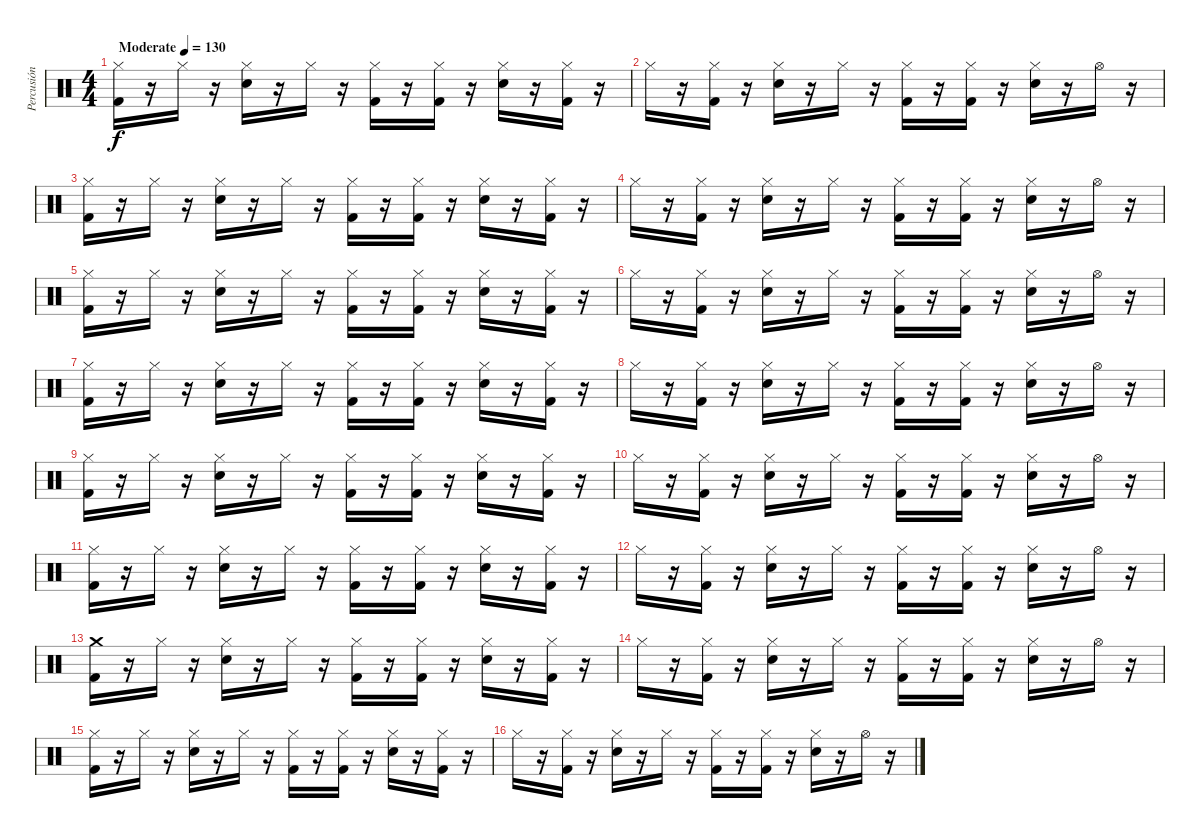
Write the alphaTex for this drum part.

\track ("Percusión" "Percusión") {instrument percussion}
\staff {score}
\articulation defaults
\ts (4 4)
\tempo (130 "Moderate")
\clef neutral
\ks c
("Hi-Hat (closed)" "Kick (hit) 2").16{dy f} r.16 "Hi-Hat (closed)".16 r.16 ("Hi-Hat (closed)" "Electric Snare (hit)").16 r.16 "Hi-Hat (closed)".16 r.16 ("Hi-Hat (closed)" "Kick (hit) 2").16 r.16 ("Hi-Hat (closed)" "Kick (hit) 2").16 r.16 ("Hi-Hat (closed)" "Electric Snare (hit)").16 r.16 ("Hi-Hat (closed)" "Kick (hit) 2").16 r.16 |
"Hi-Hat (closed)".16 r.16 ("Hi-Hat (closed)" "Kick (hit) 2").16 r.16 ("Hi-Hat (closed)" "Electric Snare (hit)").16 r.16 "Hi-Hat (closed)".16 r.16 ("Hi-Hat (closed)" "Kick (hit) 2").16 r.16 ("Hi-Hat (closed)" "Kick (hit) 2").16 r.16 ("Hi-Hat (closed)" "Electric Snare (hit)").16 r.16 "Hi-Hat (open)".16 r.16 |
("Hi-Hat (closed)" "Kick (hit) 2").16 r.16 "Hi-Hat (closed)".16 r.16 ("Hi-Hat (closed)" "Electric Snare (hit)").16 r.16 "Hi-Hat (closed)".16 r.16 ("Hi-Hat (closed)" "Kick (hit) 2").16 r.16 ("Hi-Hat (closed)" "Kick (hit) 2").16 r.16 ("Hi-Hat (closed)" "Electric Snare (hit)").16 r.16 ("Hi-Hat (closed)" "Kick (hit) 2").16 r.16 |
"Hi-Hat (closed)".16 r.16 ("Hi-Hat (closed)" "Kick (hit) 2").16 r.16 ("Hi-Hat (closed)" "Electric Snare (hit)").16 r.16 "Hi-Hat (closed)".16 r.16 ("Hi-Hat (closed)" "Kick (hit) 2").16 r.16 ("Hi-Hat (closed)" "Kick (hit) 2").16 r.16 ("Hi-Hat (closed)" "Electric Snare (hit)").16 r.16 "Hi-Hat (open)".16 r.16 |
("Hi-Hat (closed)" "Kick (hit) 2").16 r.16 "Hi-Hat (closed)".16 r.16 ("Hi-Hat (closed)" "Electric Snare (hit)").16 r.16 "Hi-Hat (closed)".16 r.16 ("Hi-Hat (closed)" "Kick (hit) 2").16 r.16 ("Hi-Hat (closed)" "Kick (hit) 2").16 r.16 ("Hi-Hat (closed)" "Electric Snare (hit)").16 r.16 ("Hi-Hat (closed)" "Kick (hit) 2").16 r.16 |
"Hi-Hat (closed)".16 r.16 ("Hi-Hat (closed)" "Kick (hit) 2").16 r.16 ("Hi-Hat (closed)" "Electric Snare (hit)").16 r.16 "Hi-Hat (closed)".16 r.16 ("Hi-Hat (closed)" "Kick (hit) 2").16 r.16 ("Hi-Hat (closed)" "Kick (hit) 2").16 r.16 ("Hi-Hat (closed)" "Electric Snare (hit)").16 r.16 "Hi-Hat (open)".16 r.16 |
("Hi-Hat (closed)" "Kick (hit) 2").16 r.16 "Hi-Hat (closed)".16 r.16 ("Hi-Hat (closed)" "Electric Snare (hit)").16 r.16 "Hi-Hat (closed)".16 r.16 ("Hi-Hat (closed)" "Kick (hit) 2").16 r.16 ("Hi-Hat (closed)" "Kick (hit) 2").16 r.16 ("Hi-Hat (closed)" "Electric Snare (hit)").16 r.16 ("Hi-Hat (closed)" "Kick (hit) 2").16 r.16 |
"Hi-Hat (closed)".16 r.16 ("Hi-Hat (closed)" "Kick (hit) 2").16 r.16 ("Hi-Hat (closed)" "Electric Snare (hit)").16 r.16 "Hi-Hat (closed)".16 r.16 ("Hi-Hat (closed)" "Kick (hit) 2").16 r.16 ("Hi-Hat (closed)" "Kick (hit) 2").16 r.16 ("Hi-Hat (closed)" "Electric Snare (hit)").16 r.16 "Hi-Hat (open)".16 r.16 |
("Hi-Hat (closed)" "Kick (hit) 2").16 r.16 "Hi-Hat (closed)".16 r.16 ("Hi-Hat (closed)" "Electric Snare (hit)").16 r.16 "Hi-Hat (closed)".16 r.16 ("Hi-Hat (closed)" "Kick (hit) 2").16 r.16 ("Hi-Hat (closed)" "Kick (hit) 2").16 r.16 ("Hi-Hat (closed)" "Electric Snare (hit)").16 r.16 ("Hi-Hat (closed)" "Kick (hit) 2").16 r.16 |
"Hi-Hat (closed)".16 r.16 ("Hi-Hat (closed)" "Kick (hit) 2").16 r.16 ("Hi-Hat (closed)" "Electric Snare (hit)").16 r.16 "Hi-Hat (closed)".16 r.16 ("Hi-Hat (closed)" "Kick (hit) 2").16 r.16 ("Hi-Hat (closed)" "Kick (hit) 2").16 r.16 ("Hi-Hat (closed)" "Electric Snare (hit)").16 r.16 "Hi-Hat (open)".16 r.16 |
("Hi-Hat (closed)" "Kick (hit) 2").16 r.16 "Hi-Hat (closed)".16 r.16 ("Hi-Hat (closed)" "Electric Snare (hit)").16 r.16 "Hi-Hat (closed)".16 r.16 ("Hi-Hat (closed)" "Kick (hit) 2").16 r.16 ("Hi-Hat (closed)" "Kick (hit) 2").16 r.16 ("Hi-Hat (closed)" "Electric Snare (hit)").16 r.16 ("Hi-Hat (closed)" "Kick (hit) 2").16 r.16 |
"Hi-Hat (closed)".16 r.16 ("Hi-Hat (closed)" "Kick (hit) 2").16 r.16 ("Hi-Hat (closed)" "Electric Snare (hit)").16 r.16 "Hi-Hat (closed)".16 r.16 ("Hi-Hat (closed)" "Kick (hit) 2").16 r.16 ("Hi-Hat (closed)" "Kick (hit) 2").16 r.16 ("Hi-Hat (closed)" "Electric Snare (hit)").16 r.16 "Hi-Hat (open)".16 r.16 |
("Crash medium (hit)" "Kick (hit) 2").16 r.16 "Hi-Hat (closed)".16 r.16 ("Hi-Hat (closed)" "Electric Snare (hit)").16 r.16 "Hi-Hat (closed)".16 r.16 ("Hi-Hat (closed)" "Kick (hit) 2").16 r.16 ("Hi-Hat (closed)" "Kick (hit) 2").16 r.16 ("Hi-Hat (closed)" "Electric Snare (hit)").16 r.16 ("Hi-Hat (closed)" "Kick (hit) 2").16 r.16 |
"Hi-Hat (closed)".16 r.16 ("Hi-Hat (closed)" "Kick (hit) 2").16 r.16 ("Hi-Hat (closed)" "Electric Snare (hit)").16 r.16 "Hi-Hat (closed)".16 r.16 ("Hi-Hat (closed)" "Kick (hit) 2").16 r.16 ("Hi-Hat (closed)" "Kick (hit) 2").16 r.16 ("Hi-Hat (closed)" "Electric Snare (hit)").16 r.16 "Hi-Hat (open)".16 r.16 |
("Hi-Hat (closed)" "Kick (hit) 2").16 r.16 "Hi-Hat (closed)".16 r.16 ("Hi-Hat (closed)" "Electric Snare (hit)").16 r.16 "Hi-Hat (closed)".16 r.16 ("Hi-Hat (closed)" "Kick (hit) 2").16 r.16 ("Hi-Hat (closed)" "Kick (hit) 2").16 r.16 ("Hi-Hat (closed)" "Electric Snare (hit)").16 r.16 ("Hi-Hat (closed)" "Kick (hit) 2").16 r.16 |
"Hi-Hat (closed)".16 r.16 ("Hi-Hat (closed)" "Kick (hit) 2").16 r.16 ("Hi-Hat (closed)" "Electric Snare (hit)").16 r.16 "Hi-Hat (closed)".16 r.16 ("Hi-Hat (closed)" "Kick (hit) 2").16 r.16 ("Hi-Hat (closed)" "Kick (hit) 2").16 r.16 ("Hi-Hat (closed)" "Electric Snare (hit)").16 r.16 "Hi-Hat (open)".16 r.16
